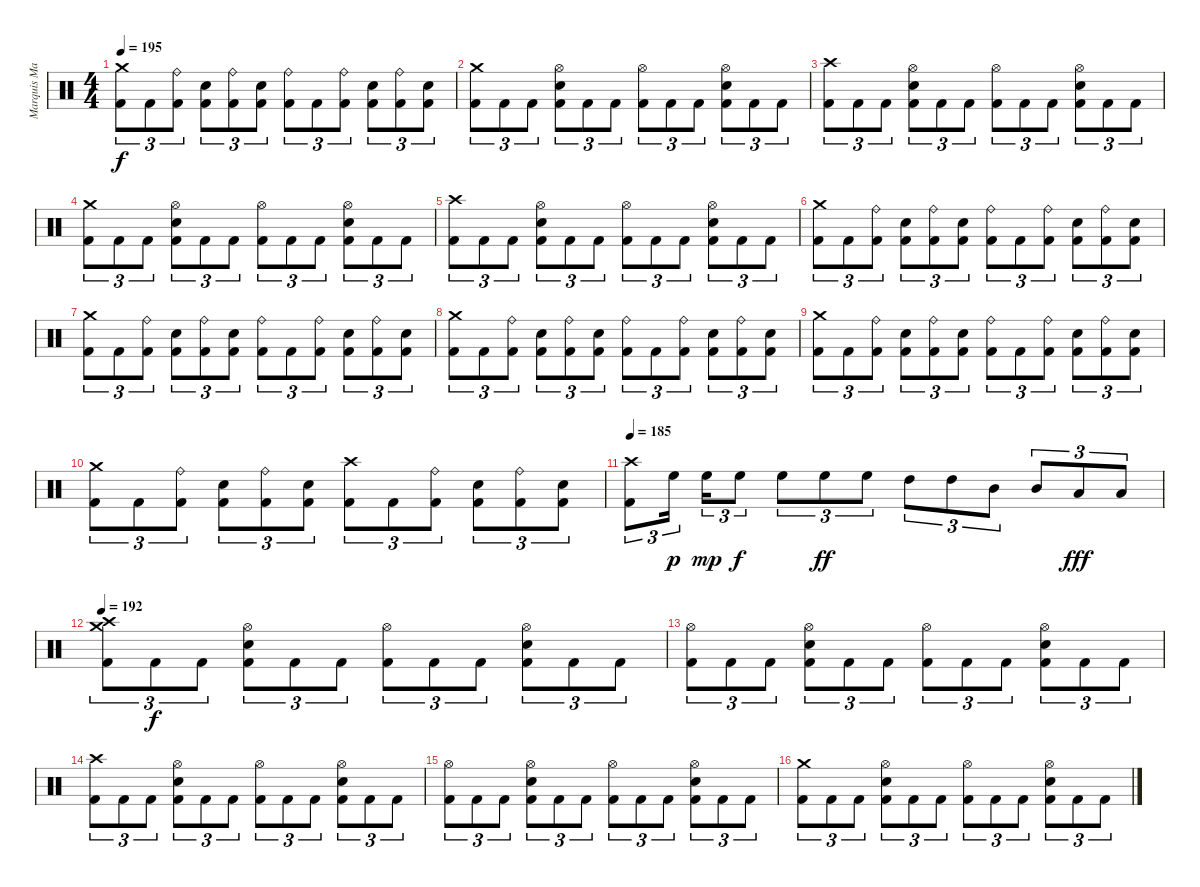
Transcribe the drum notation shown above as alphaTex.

\track ("Marquis Marky (DRUMS)" "Marquis Ma") {instrument percussion}
\staff {score}
\articulation defaults
\ts (4 4)
\tempo 195
\clef neutral
\ks c
("Crash medium (hit)" "Kick (hit) 2").8{tu (3 2) dy f} "Kick (hit) 2".8{tu (3 2)} ("Ride (bell)" "Kick (hit) 2").8{tu (3 2)} ("Snare (hit) 2" "Kick (hit) 2").8{tu (3 2)} ("Ride (bell)" "Kick (hit) 2").8{tu (3 2)} ("Snare (hit) 2" "Kick (hit) 2").8{tu (3 2)} ("Ride (bell)" "Kick (hit) 2").8{tu (3 2)} "Kick (hit) 2".8{tu (3 2)} ("Ride (bell)" "Kick (hit) 2").8{tu (3 2)} ("Snare (hit) 2" "Kick (hit) 2").8{tu (3 2)} ("Ride (bell)" "Kick (hit) 2").8{tu (3 2)} ("Snare (hit) 2" "Kick (hit) 2").8{tu (3 2)} |
("Crash medium (hit)" "Kick (hit) 2").8{tu (3 2)} "Kick (hit) 2".8{tu (3 2)} "Kick (hit) 2".8{tu (3 2)} ("Hi-Hat (open)" "Snare (hit) 2" "Kick (hit) 2").8{tu (3 2)} "Kick (hit) 2".8{tu (3 2)} "Kick (hit) 2".8{tu (3 2)} ("Hi-Hat (open)" "Kick (hit) 2").8{tu (3 2)} "Kick (hit) 2".8{tu (3 2)} "Kick (hit) 2".8{tu (3 2)} ("Hi-Hat (open)" "Snare (hit) 2" "Kick (hit) 2").8{tu (3 2)} "Kick (hit) 2".8{tu (3 2)} "Kick (hit) 2".8{tu (3 2)} |
("Crash high (hit)" "Kick (hit) 2").8{tu (3 2)} "Kick (hit) 2".8{tu (3 2)} "Kick (hit) 2".8{tu (3 2)} ("Hi-Hat (open)" "Snare (hit) 2" "Kick (hit) 2").8{tu (3 2)} "Kick (hit) 2".8{tu (3 2)} "Kick (hit) 2".8{tu (3 2)} ("Hi-Hat (open)" "Kick (hit) 2").8{tu (3 2)} "Kick (hit) 2".8{tu (3 2)} "Kick (hit) 2".8{tu (3 2)} ("Hi-Hat (open)" "Snare (hit) 2" "Kick (hit) 2").8{tu (3 2)} "Kick (hit) 2".8{tu (3 2)} "Kick (hit) 2".8{tu (3 2)} |
("Crash medium (hit)" "Kick (hit) 2").8{tu (3 2)} "Kick (hit) 2".8{tu (3 2)} "Kick (hit) 2".8{tu (3 2)} ("Hi-Hat (open)" "Snare (hit) 2" "Kick (hit) 2").8{tu (3 2)} "Kick (hit) 2".8{tu (3 2)} "Kick (hit) 2".8{tu (3 2)} ("Hi-Hat (open)" "Kick (hit) 2").8{tu (3 2)} "Kick (hit) 2".8{tu (3 2)} "Kick (hit) 2".8{tu (3 2)} ("Hi-Hat (open)" "Snare (hit) 2" "Kick (hit) 2").8{tu (3 2)} "Kick (hit) 2".8{tu (3 2)} "Kick (hit) 2".8{tu (3 2)} |
("Crash high (hit)" "Kick (hit) 2").8{tu (3 2)} "Kick (hit) 2".8{tu (3 2)} "Kick (hit) 2".8{tu (3 2)} ("Hi-Hat (open)" "Snare (hit) 2" "Kick (hit) 2").8{tu (3 2)} "Kick (hit) 2".8{tu (3 2)} "Kick (hit) 2".8{tu (3 2)} ("Hi-Hat (open)" "Kick (hit) 2").8{tu (3 2)} "Kick (hit) 2".8{tu (3 2)} "Kick (hit) 2".8{tu (3 2)} ("Hi-Hat (open)" "Snare (hit) 2" "Kick (hit) 2").8{tu (3 2)} "Kick (hit) 2".8{tu (3 2)} "Kick (hit) 2".8{tu (3 2)} |
("Crash medium (hit)" "Kick (hit) 2").8{tu (3 2)} "Kick (hit) 2".8{tu (3 2)} ("Ride (bell)" "Kick (hit) 2").8{tu (3 2)} ("Snare (hit) 2" "Kick (hit) 2").8{tu (3 2)} ("Ride (bell)" "Kick (hit) 2").8{tu (3 2)} ("Snare (hit) 2" "Kick (hit) 2").8{tu (3 2)} ("Ride (bell)" "Kick (hit) 2").8{tu (3 2)} "Kick (hit) 2".8{tu (3 2)} ("Ride (bell)" "Kick (hit) 2").8{tu (3 2)} ("Snare (hit) 2" "Kick (hit) 2").8{tu (3 2)} ("Ride (bell)" "Kick (hit) 2").8{tu (3 2)} ("Snare (hit) 2" "Kick (hit) 2").8{tu (3 2)} |
("Crash medium (hit)" "Kick (hit) 2").8{tu (3 2)} "Kick (hit) 2".8{tu (3 2)} ("Ride (bell)" "Kick (hit) 2").8{tu (3 2)} ("Snare (hit) 2" "Kick (hit) 2").8{tu (3 2)} ("Ride (bell)" "Kick (hit) 2").8{tu (3 2)} ("Snare (hit) 2" "Kick (hit) 2").8{tu (3 2)} ("Ride (bell)" "Kick (hit) 2").8{tu (3 2)} "Kick (hit) 2".8{tu (3 2)} ("Ride (bell)" "Kick (hit) 2").8{tu (3 2)} ("Snare (hit) 2" "Kick (hit) 2").8{tu (3 2)} ("Ride (bell)" "Kick (hit) 2").8{tu (3 2)} ("Snare (hit) 2" "Kick (hit) 2").8{tu (3 2)} |
("Crash medium (hit)" "Kick (hit) 2").8{tu (3 2)} "Kick (hit) 2".8{tu (3 2)} ("Ride (bell)" "Kick (hit) 2").8{tu (3 2)} ("Snare (hit) 2" "Kick (hit) 2").8{tu (3 2)} ("Ride (bell)" "Kick (hit) 2").8{tu (3 2)} ("Snare (hit) 2" "Kick (hit) 2").8{tu (3 2)} ("Ride (bell)" "Kick (hit) 2").8{tu (3 2)} "Kick (hit) 2".8{tu (3 2)} ("Ride (bell)" "Kick (hit) 2").8{tu (3 2)} ("Snare (hit) 2" "Kick (hit) 2").8{tu (3 2)} ("Ride (bell)" "Kick (hit) 2").8{tu (3 2)} ("Snare (hit) 2" "Kick (hit) 2").8{tu (3 2)} |
("Crash medium (hit)" "Kick (hit) 2").8{tu (3 2)} "Kick (hit) 2".8{tu (3 2)} ("Ride (bell)" "Kick (hit) 2").8{tu (3 2)} ("Snare (hit) 2" "Kick (hit) 2").8{tu (3 2)} ("Ride (bell)" "Kick (hit) 2").8{tu (3 2)} ("Snare (hit) 2" "Kick (hit) 2").8{tu (3 2)} ("Ride (bell)" "Kick (hit) 2").8{tu (3 2)} "Kick (hit) 2".8{tu (3 2)} ("Ride (bell)" "Kick (hit) 2").8{tu (3 2)} ("Snare (hit) 2" "Kick (hit) 2").8{tu (3 2)} ("Ride (bell)" "Kick (hit) 2").8{tu (3 2)} ("Snare (hit) 2" "Kick (hit) 2").8{tu (3 2)} |
("Crash medium (hit)" "Kick (hit) 2").8{tu (3 2)} "Kick (hit) 2".8{tu (3 2)} ("Ride (bell)" "Kick (hit) 2").8{tu (3 2)} ("Snare (hit) 2" "Kick (hit) 2").8{tu (3 2)} ("Ride (bell)" "Kick (hit) 2").8{tu (3 2)} ("Snare (hit) 2" "Kick (hit) 2").8{tu (3 2)} ("Crash high (hit)" "Kick (hit) 2").8{tu (3 2)} "Kick (hit) 2".8{tu (3 2)} ("Ride (bell)" "Kick (hit) 2").8{tu (3 2)} ("Snare (hit) 2" "Kick (hit) 2").8{tu (3 2)} ("Ride (bell)" "Kick (hit) 2").8{tu (3 2)} ("Snare (hit) 2" "Kick (hit) 2").8{tu (3 2)} |
\tempo 180
\tempo 185
("Crash high (hit)" "Kick (hit) 2").8{tu (3 2)} "High Floor Tom (hit)".16{tu (3 2) dy p beam splitsecondary} "High Floor Tom (hit)".16{tu (3 2) dy mp} "High Floor Tom (hit)".8{tu (3 2) dy f} "High Floor Tom (hit)".8{tu (3 2)} "High Floor Tom (hit)".8{tu (3 2) dy ff} "High Floor Tom (hit)".8{tu (3 2)} "High Tom (hit)".8{tu (3 2)} "High Tom (hit)".8{tu (3 2)} "Mid Tom (hit)".8{tu (3 2)} "Mid Tom (hit)".8{tu (3 2)} "Low Tom (hit)".8{tu (3 2) dy fff} "Low Tom (hit)".8{tu (3 2)} |
\tempo 192
("Crash high (hit)" "Crash medium (hit)" "Kick (hit) 2").8{tu (3 2)} "Kick (hit) 2".8{tu (3 2) dy f} "Kick (hit) 2".8{tu (3 2)} ("Hi-Hat (open)" "Snare (hit) 2" "Kick (hit) 2").8{tu (3 2)} "Kick (hit) 2".8{tu (3 2)} "Kick (hit) 2".8{tu (3 2)} ("Hi-Hat (open)" "Kick (hit) 2").8{tu (3 2)} "Kick (hit) 2".8{tu (3 2)} "Kick (hit) 2".8{tu (3 2)} ("Hi-Hat (open)" "Snare (hit) 2" "Kick (hit) 2").8{tu (3 2)} "Kick (hit) 2".8{tu (3 2)} "Kick (hit) 2".8{tu (3 2)} |
("Hi-Hat (open)" "Kick (hit) 2").8{tu (3 2)} "Kick (hit) 2".8{tu (3 2)} "Kick (hit) 2".8{tu (3 2)} ("Hi-Hat (open)" "Snare (hit) 2" "Kick (hit) 2").8{tu (3 2)} "Kick (hit) 2".8{tu (3 2)} "Kick (hit) 2".8{tu (3 2)} ("Hi-Hat (open)" "Kick (hit) 2").8{tu (3 2)} "Kick (hit) 2".8{tu (3 2)} "Kick (hit) 2".8{tu (3 2)} ("Hi-Hat (open)" "Snare (hit) 2" "Kick (hit) 2").8{tu (3 2)} "Kick (hit) 2".8{tu (3 2)} "Kick (hit) 2".8{tu (3 2)} |
("Crash high (hit)" "Kick (hit) 2").8{tu (3 2)} "Kick (hit) 2".8{tu (3 2)} "Kick (hit) 2".8{tu (3 2)} ("Hi-Hat (open)" "Snare (hit) 2" "Kick (hit) 2").8{tu (3 2)} "Kick (hit) 2".8{tu (3 2)} "Kick (hit) 2".8{tu (3 2)} ("Hi-Hat (open)" "Kick (hit) 2").8{tu (3 2)} "Kick (hit) 2".8{tu (3 2)} "Kick (hit) 2".8{tu (3 2)} ("Hi-Hat (open)" "Snare (hit) 2" "Kick (hit) 2").8{tu (3 2)} "Kick (hit) 2".8{tu (3 2)} "Kick (hit) 2".8{tu (3 2)} |
("Hi-Hat (open)" "Kick (hit) 2").8{tu (3 2)} "Kick (hit) 2".8{tu (3 2)} "Kick (hit) 2".8{tu (3 2)} ("Hi-Hat (open)" "Snare (hit) 2" "Kick (hit) 2").8{tu (3 2)} "Kick (hit) 2".8{tu (3 2)} "Kick (hit) 2".8{tu (3 2)} ("Hi-Hat (open)" "Kick (hit) 2").8{tu (3 2)} "Kick (hit) 2".8{tu (3 2)} "Kick (hit) 2".8{tu (3 2)} ("Hi-Hat (open)" "Snare (hit) 2" "Kick (hit) 2").8{tu (3 2)} "Kick (hit) 2".8{tu (3 2)} "Kick (hit) 2".8{tu (3 2)} |
("Crash medium (hit)" "Kick (hit) 2").8{tu (3 2)} "Kick (hit) 2".8{tu (3 2)} "Kick (hit) 2".8{tu (3 2)} ("Hi-Hat (open)" "Snare (hit) 2" "Kick (hit) 2").8{tu (3 2)} "Kick (hit) 2".8{tu (3 2)} "Kick (hit) 2".8{tu (3 2)} ("Hi-Hat (open)" "Kick (hit) 2").8{tu (3 2)} "Kick (hit) 2".8{tu (3 2)} "Kick (hit) 2".8{tu (3 2)} ("Hi-Hat (open)" "Snare (hit) 2" "Kick (hit) 2").8{tu (3 2)} "Kick (hit) 2".8{tu (3 2)} "Kick (hit) 2".8{tu (3 2)}
